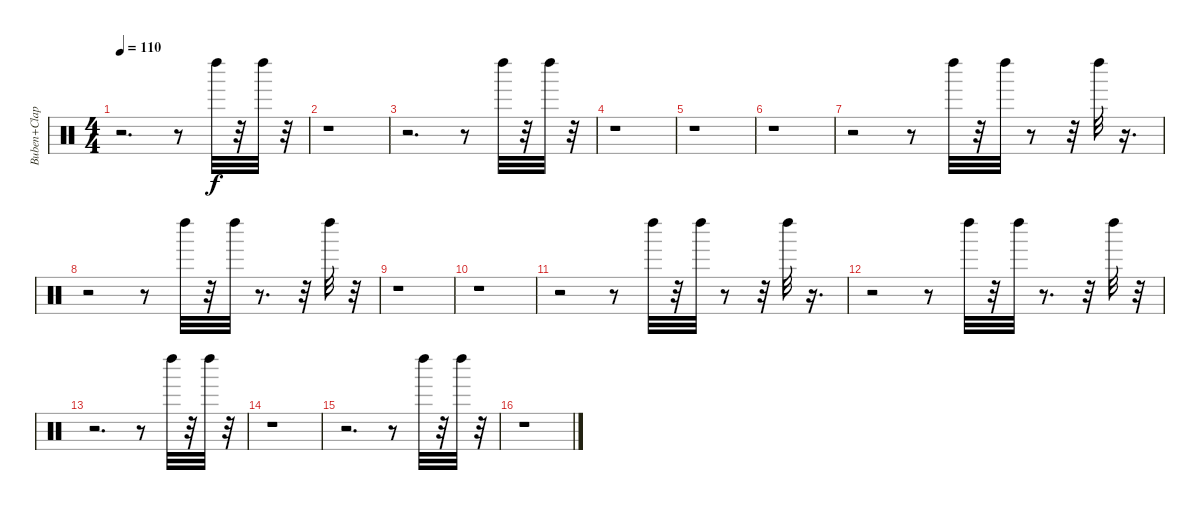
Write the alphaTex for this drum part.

\track ("Buben+Clap" "Buben+Clap") {instrument percussion}
\staff {score}
\articulation defaults
\ts (4 4)
\tempo 110
\clef neutral
\ks c
r.2{d dy f} r.8 "Left Maraca (hit)".32 r.32 "Left Maraca (hit)".32 r.32 |
r.1 |
r.2{d} r.8 "Left Maraca (hit)".32 r.32 "Left Maraca (hit)".32 r.32 |
r.1 |
r.1 |
r.1 |
r.2 r.8 "Left Maraca (hit)".32 r.32 "Left Maraca (hit)".32 r.8 r.32 "Left Maraca (hit)".32 r.16{d} |
r.2 r.8 "Left Maraca (hit)".32 r.32 "Left Maraca (hit)".32 r.8{d} r.32 "Left Maraca (hit)".32 r.32 |
r.1 |
r.1 |
r.2 r.8 "Left Maraca (hit)".32 r.32 "Left Maraca (hit)".32 r.8 r.32 "Left Maraca (hit)".32 r.16{d} |
r.2 r.8 "Left Maraca (hit)".32 r.32 "Left Maraca (hit)".32 r.8{d} r.32 "Left Maraca (hit)".32 r.32 |
r.2{d} r.8 "Left Maraca (hit)".32 r.32 "Left Maraca (hit)".32 r.32 |
r.1 |
r.2{d} r.8 "Left Maraca (hit)".32 r.32 "Left Maraca (hit)".32 r.32 |
r.1
